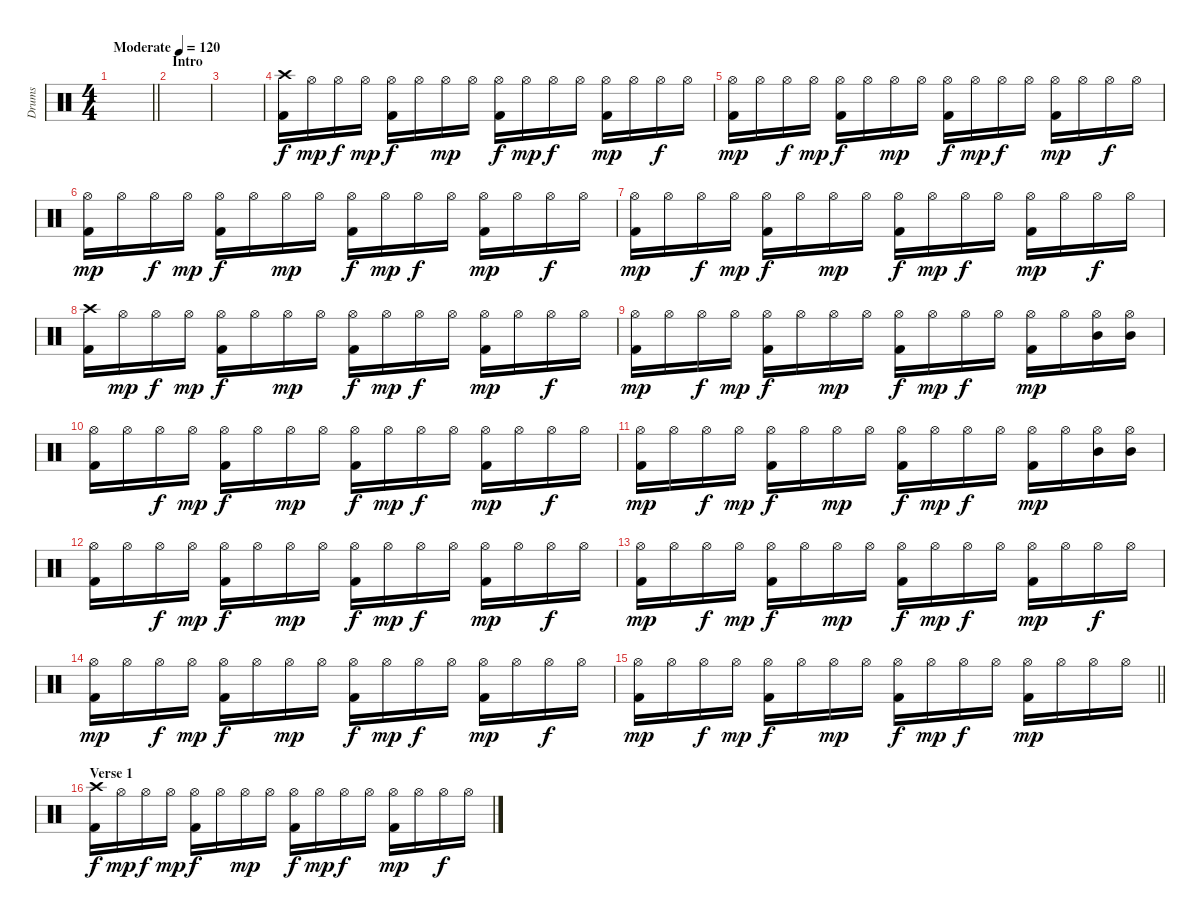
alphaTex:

\track ("Drums" "Drums") {instrument percussion}
\staff {score}
\articulation defaults
\ts (4 4)
\tempo (120 "Moderate")
\clef neutral
\barLineRight lightlight
\ks c
|
\section ("" "Intro")
|
|
("Crash high (hit)" "Kick (hit) 2").16 "Hi-Hat (open)".16{dy mp} "Hi-Hat (open)".16{dy f} "Hi-Hat (open)".16{dy mp} ("Hi-Hat (open)" "Kick (hit) 2").16{dy f} "Hi-Hat (open)".16 "Hi-Hat (open)".16{dy mp} "Hi-Hat (open)".16 ("Hi-Hat (open)" "Kick (hit) 2").16{dy f} "Hi-Hat (open)".16{dy mp} "Hi-Hat (open)".16{dy f} "Hi-Hat (open)".16 ("Hi-Hat (open)" "Kick (hit) 2").16{dy mp} "Hi-Hat (open)".16 "Hi-Hat (open)".16{dy f} "Hi-Hat (open)".16 |
("Hi-Hat (open)" "Kick (hit) 2").16{dy mp} "Hi-Hat (open)".16 "Hi-Hat (open)".16{dy f} "Hi-Hat (open)".16{dy mp} ("Hi-Hat (open)" "Kick (hit) 2").16{dy f} "Hi-Hat (open)".16 "Hi-Hat (open)".16{dy mp} "Hi-Hat (open)".16 ("Hi-Hat (open)" "Kick (hit) 2").16{dy f} "Hi-Hat (open)".16{dy mp} "Hi-Hat (open)".16{dy f} "Hi-Hat (open)".16 ("Hi-Hat (open)" "Kick (hit) 2").16{dy mp} "Hi-Hat (open)".16 "Hi-Hat (open)".16{dy f} "Hi-Hat (open)".16 |
("Hi-Hat (open)" "Kick (hit) 2").16{dy mp} "Hi-Hat (open)".16 "Hi-Hat (open)".16{dy f} "Hi-Hat (open)".16{dy mp} ("Hi-Hat (open)" "Kick (hit) 2").16{dy f} "Hi-Hat (open)".16 "Hi-Hat (open)".16{dy mp} "Hi-Hat (open)".16 ("Hi-Hat (open)" "Kick (hit) 2").16{dy f} "Hi-Hat (open)".16{dy mp} "Hi-Hat (open)".16{dy f} "Hi-Hat (open)".16 ("Hi-Hat (open)" "Kick (hit) 2").16{dy mp} "Hi-Hat (open)".16 "Hi-Hat (open)".16{dy f} "Hi-Hat (open)".16 |
("Hi-Hat (open)" "Kick (hit) 2").16{dy mp} "Hi-Hat (open)".16 "Hi-Hat (open)".16{dy f} "Hi-Hat (open)".16{dy mp} ("Hi-Hat (open)" "Kick (hit) 2").16{dy f} "Hi-Hat (open)".16 "Hi-Hat (open)".16{dy mp} "Hi-Hat (open)".16 ("Hi-Hat (open)" "Kick (hit) 2").16{dy f} "Hi-Hat (open)".16{dy mp} "Hi-Hat (open)".16{dy f} "Hi-Hat (open)".16 ("Hi-Hat (open)" "Kick (hit) 2").16{dy mp} "Hi-Hat (open)".16 "Hi-Hat (open)".16{dy f} "Hi-Hat (open)".16 |
("Crash high (hit)" "Kick (hit) 2").16 "Hi-Hat (open)".16{dy mp} "Hi-Hat (open)".16{dy f} "Hi-Hat (open)".16{dy mp} ("Hi-Hat (open)" "Kick (hit) 2").16{dy f} "Hi-Hat (open)".16 "Hi-Hat (open)".16{dy mp} "Hi-Hat (open)".16 ("Hi-Hat (open)" "Kick (hit) 2").16{dy f} "Hi-Hat (open)".16{dy mp} "Hi-Hat (open)".16{dy f} "Hi-Hat (open)".16 ("Hi-Hat (open)" "Kick (hit) 2").16{dy mp} "Hi-Hat (open)".16 "Hi-Hat (open)".16{dy f} "Hi-Hat (open)".16 |
("Hi-Hat (open)" "Kick (hit) 2").16{dy mp} "Hi-Hat (open)".16 "Hi-Hat (open)".16{dy f} "Hi-Hat (open)".16{dy mp} ("Hi-Hat (open)" "Kick (hit) 2").16{dy f} "Hi-Hat (open)".16 "Hi-Hat (open)".16{dy mp} "Hi-Hat (open)".16 ("Hi-Hat (open)" "Kick (hit) 2").16{dy f} "Hi-Hat (open)".16{dy mp} "Hi-Hat (open)".16{dy f} "Hi-Hat (open)".16 ("Hi-Hat (open)" "Kick (hit) 2").16{dy mp} "Hi-Hat (open)".16 ("Hi-Hat (open)" "Mid Tom (hit)").16 ("Hi-Hat (open)" "Mid Tom (hit)").16 |
("Hi-Hat (open)" "Kick (hit) 2").16 "Hi-Hat (open)".16 "Hi-Hat (open)".16{dy f} "Hi-Hat (open)".16{dy mp} ("Hi-Hat (open)" "Kick (hit) 2").16{dy f} "Hi-Hat (open)".16 "Hi-Hat (open)".16{dy mp} "Hi-Hat (open)".16 ("Hi-Hat (open)" "Kick (hit) 2").16{dy f} "Hi-Hat (open)".16{dy mp} "Hi-Hat (open)".16{dy f} "Hi-Hat (open)".16 ("Hi-Hat (open)" "Kick (hit) 2").16{dy mp} "Hi-Hat (open)".16 "Hi-Hat (open)".16{dy f} "Hi-Hat (open)".16 |
("Hi-Hat (open)" "Kick (hit) 2").16{dy mp} "Hi-Hat (open)".16 "Hi-Hat (open)".16{dy f} "Hi-Hat (open)".16{dy mp} ("Hi-Hat (open)" "Kick (hit) 2").16{dy f} "Hi-Hat (open)".16 "Hi-Hat (open)".16{dy mp} "Hi-Hat (open)".16 ("Hi-Hat (open)" "Kick (hit) 2").16{dy f} "Hi-Hat (open)".16{dy mp} "Hi-Hat (open)".16{dy f} "Hi-Hat (open)".16 ("Hi-Hat (open)" "Kick (hit) 2").16{dy mp} "Hi-Hat (open)".16 ("Hi-Hat (open)" "Mid Tom (hit)").16 ("Hi-Hat (open)" "Mid Tom (hit)").16 |
("Hi-Hat (open)" "Kick (hit) 2").16 "Hi-Hat (open)".16 "Hi-Hat (open)".16{dy f} "Hi-Hat (open)".16{dy mp} ("Hi-Hat (open)" "Kick (hit) 2").16{dy f} "Hi-Hat (open)".16 "Hi-Hat (open)".16{dy mp} "Hi-Hat (open)".16 ("Hi-Hat (open)" "Kick (hit) 2").16{dy f} "Hi-Hat (open)".16{dy mp} "Hi-Hat (open)".16{dy f} "Hi-Hat (open)".16 ("Hi-Hat (open)" "Kick (hit) 2").16{dy mp} "Hi-Hat (open)".16 "Hi-Hat (open)".16{dy f} "Hi-Hat (open)".16 |
("Hi-Hat (open)" "Kick (hit) 2").16{dy mp} "Hi-Hat (open)".16 "Hi-Hat (open)".16{dy f} "Hi-Hat (open)".16{dy mp} ("Hi-Hat (open)" "Kick (hit) 2").16{dy f} "Hi-Hat (open)".16 "Hi-Hat (open)".16{dy mp} "Hi-Hat (open)".16 ("Hi-Hat (open)" "Kick (hit) 2").16{dy f} "Hi-Hat (open)".16{dy mp} "Hi-Hat (open)".16{dy f} "Hi-Hat (open)".16 ("Hi-Hat (open)" "Kick (hit) 2").16{dy mp} "Hi-Hat (open)".16 "Hi-Hat (open)".16{dy f} "Hi-Hat (open)".16 |
("Hi-Hat (open)" "Kick (hit) 2").16{dy mp} "Hi-Hat (open)".16 "Hi-Hat (open)".16{dy f} "Hi-Hat (open)".16{dy mp} ("Hi-Hat (open)" "Kick (hit) 2").16{dy f} "Hi-Hat (open)".16 "Hi-Hat (open)".16{dy mp} "Hi-Hat (open)".16 ("Hi-Hat (open)" "Kick (hit) 2").16{dy f} "Hi-Hat (open)".16{dy mp} "Hi-Hat (open)".16{dy f} "Hi-Hat (open)".16 ("Hi-Hat (open)" "Kick (hit) 2").16{dy mp} "Hi-Hat (open)".16 "Hi-Hat (open)".16{dy f} "Hi-Hat (open)".16 |
\barLineRight lightlight
("Hi-Hat (open)" "Kick (hit) 2").16{dy mp} "Hi-Hat (open)".16 "Hi-Hat (open)".16{dy f} "Hi-Hat (open)".16{dy mp} ("Hi-Hat (open)" "Kick (hit) 2").16{dy f} "Hi-Hat (open)".16 "Hi-Hat (open)".16{dy mp} "Hi-Hat (open)".16 ("Hi-Hat (open)" "Kick (hit) 2").16{dy f} "Hi-Hat (open)".16{dy mp} "Hi-Hat (open)".16{dy f} "Hi-Hat (open)".16 ("Hi-Hat (open)" "Kick (hit) 2").16{dy mp} "Hi-Hat (open)".16 "Hi-Hat (open)".16 "Hi-Hat (open)".16 |
\section ("" "Verse 1")
("Crash high (hit)" "Kick (hit) 2").16{dy f} "Hi-Hat (open)".16{dy mp} "Hi-Hat (open)".16{dy f} "Hi-Hat (open)".16{dy mp} ("Hi-Hat (open)" "Kick (hit) 2").16{dy f} "Hi-Hat (open)".16 "Hi-Hat (open)".16{dy mp} "Hi-Hat (open)".16 ("Hi-Hat (open)" "Kick (hit) 2").16{dy f} "Hi-Hat (open)".16{dy mp} "Hi-Hat (open)".16{dy f} "Hi-Hat (open)".16 ("Hi-Hat (open)" "Kick (hit) 2").16{dy mp} "Hi-Hat (open)".16 "Hi-Hat (open)".16{dy f} "Hi-Hat (open)".16
